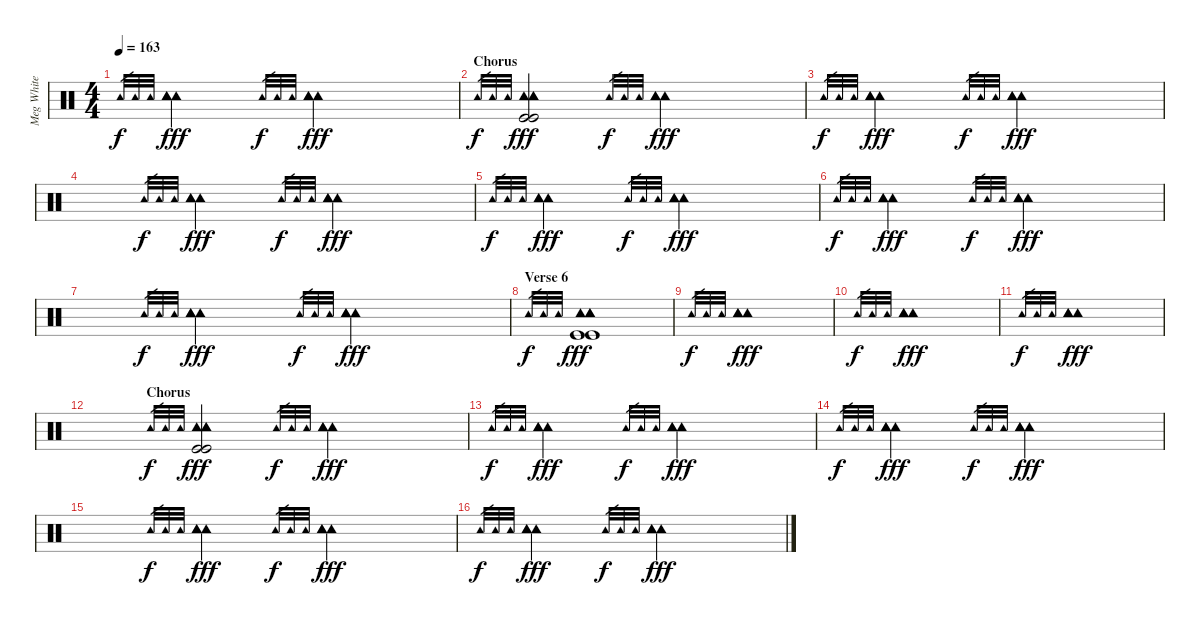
\track ("Meg White" "Meg White") {instrument percussion}
\staff {score}
\articulation defaults
\ts (4 4)
\tempo 163
\clef neutral
\ks c "Tambourine (hit)".32{gr dy f} "Tambourine (hit)".32{gr} "Tambourine (hit)".32{gr}
("Tambourine (hit)" "Tambourine (hit)" "Tambourine (hit)").2{dy fff} "Tambourine (hit)".32{gr dy f} "Tambourine (hit)".32{gr} "Tambourine (hit)".32{gr} ("Tambourine (hit)" "Tambourine (hit)" "Tambourine (hit)").2{dy fff} |
\section ("" "Chorus")
"Tambourine (hit)".32{gr dy f} "Tambourine (hit)".32{gr} "Tambourine (hit)".32{gr} ("Tambourine (hit)" "Tambourine (hit)" "Tambourine (hit)" "Kick (hit)" "Kick (hit)").2{dy fff} "Tambourine (hit)".32{gr dy f} "Tambourine (hit)".32{gr} "Tambourine (hit)".32{gr} ("Tambourine (hit)" "Tambourine (hit)" "Tambourine (hit)").2{dy fff} |
"Tambourine (hit)".32{gr dy f} "Tambourine (hit)".32{gr} "Tambourine (hit)".32{gr} ("Tambourine (hit)" "Tambourine (hit)" "Tambourine (hit)").2{dy fff} "Tambourine (hit)".32{gr dy f} "Tambourine (hit)".32{gr} "Tambourine (hit)".32{gr} ("Tambourine (hit)" "Tambourine (hit)" "Tambourine (hit)").2{dy fff} |
"Tambourine (hit)".32{gr dy f} "Tambourine (hit)".32{gr} "Tambourine (hit)".32{gr} ("Tambourine (hit)" "Tambourine (hit)" "Tambourine (hit)").2{dy fff} "Tambourine (hit)".32{gr dy f} "Tambourine (hit)".32{gr} "Tambourine (hit)".32{gr} ("Tambourine (hit)" "Tambourine (hit)" "Tambourine (hit)").2{dy fff} |
"Tambourine (hit)".32{gr dy f} "Tambourine (hit)".32{gr} "Tambourine (hit)".32{gr} ("Tambourine (hit)" "Tambourine (hit)" "Tambourine (hit)").2{dy fff} "Tambourine (hit)".32{gr dy f} "Tambourine (hit)".32{gr} "Tambourine (hit)".32{gr} ("Tambourine (hit)" "Tambourine (hit)" "Tambourine (hit)").2{dy fff} |
"Tambourine (hit)".32{gr dy f} "Tambourine (hit)".32{gr} "Tambourine (hit)".32{gr} ("Tambourine (hit)" "Tambourine (hit)" "Tambourine (hit)").2{dy fff} "Tambourine (hit)".32{gr dy f} "Tambourine (hit)".32{gr} "Tambourine (hit)".32{gr} ("Tambourine (hit)" "Tambourine (hit)" "Tambourine (hit)").2{dy fff} |
"Tambourine (hit)".32{gr dy f} "Tambourine (hit)".32{gr} "Tambourine (hit)".32{gr} ("Tambourine (hit)" "Tambourine (hit)" "Tambourine (hit)").2{dy fff} "Tambourine (hit)".32{gr dy f} "Tambourine (hit)".32{gr} "Tambourine (hit)".32{gr} ("Tambourine (hit)" "Tambourine (hit)" "Tambourine (hit)").2{dy fff} |
\section ("" "Verse 6")
"Tambourine (hit)".32{gr dy f} "Tambourine (hit)".32{gr} "Tambourine (hit)".32{gr} ("Tambourine (hit)" "Tambourine (hit)" "Tambourine (hit)" "Kick (hit)" "Kick (hit)").1{dy fff} |
"Tambourine (hit)".32{gr dy f} "Tambourine (hit)".32{gr} "Tambourine (hit)".32{gr} ("Tambourine (hit)" "Tambourine (hit)" "Tambourine (hit)").1{dy fff} |
"Tambourine (hit)".32{gr dy f} "Tambourine (hit)".32{gr} "Tambourine (hit)".32{gr} ("Tambourine (hit)" "Tambourine (hit)" "Tambourine (hit)").1{dy fff} |
"Tambourine (hit)".32{gr dy f} "Tambourine (hit)".32{gr} "Tambourine (hit)".32{gr} ("Tambourine (hit)" "Tambourine (hit)" "Tambourine (hit)").1{dy fff} |
\section ("" "Chorus")
"Tambourine (hit)".32{gr dy f} "Tambourine (hit)".32{gr} "Tambourine (hit)".32{gr} ("Tambourine (hit)" "Tambourine (hit)" "Tambourine (hit)" "Kick (hit)" "Kick (hit)").2{dy fff} "Tambourine (hit)".32{gr dy f} "Tambourine (hit)".32{gr} "Tambourine (hit)".32{gr} ("Tambourine (hit)" "Tambourine (hit)" "Tambourine (hit)").2{dy fff} |
"Tambourine (hit)".32{gr dy f} "Tambourine (hit)".32{gr} "Tambourine (hit)".32{gr} ("Tambourine (hit)" "Tambourine (hit)" "Tambourine (hit)").2{dy fff} "Tambourine (hit)".32{gr dy f} "Tambourine (hit)".32{gr} "Tambourine (hit)".32{gr} ("Tambourine (hit)" "Tambourine (hit)" "Tambourine (hit)").2{dy fff} |
"Tambourine (hit)".32{gr dy f} "Tambourine (hit)".32{gr} "Tambourine (hit)".32{gr} ("Tambourine (hit)" "Tambourine (hit)" "Tambourine (hit)").2{dy fff} "Tambourine (hit)".32{gr dy f} "Tambourine (hit)".32{gr} "Tambourine (hit)".32{gr} ("Tambourine (hit)" "Tambourine (hit)" "Tambourine (hit)").2{dy fff} |
"Tambourine (hit)".32{gr dy f} "Tambourine (hit)".32{gr} "Tambourine (hit)".32{gr} ("Tambourine (hit)" "Tambourine (hit)" "Tambourine (hit)").2{dy fff} "Tambourine (hit)".32{gr dy f} "Tambourine (hit)".32{gr} "Tambourine (hit)".32{gr} ("Tambourine (hit)" "Tambourine (hit)" "Tambourine (hit)").2{dy fff} |
"Tambourine (hit)".32{gr dy f} "Tambourine (hit)".32{gr} "Tambourine (hit)".32{gr} ("Tambourine (hit)" "Tambourine (hit)" "Tambourine (hit)").2{dy fff} "Tambourine (hit)".32{gr dy f} "Tambourine (hit)".32{gr} "Tambourine (hit)".32{gr} ("Tambourine (hit)" "Tambourine (hit)" "Tambourine (hit)").2{dy fff}
